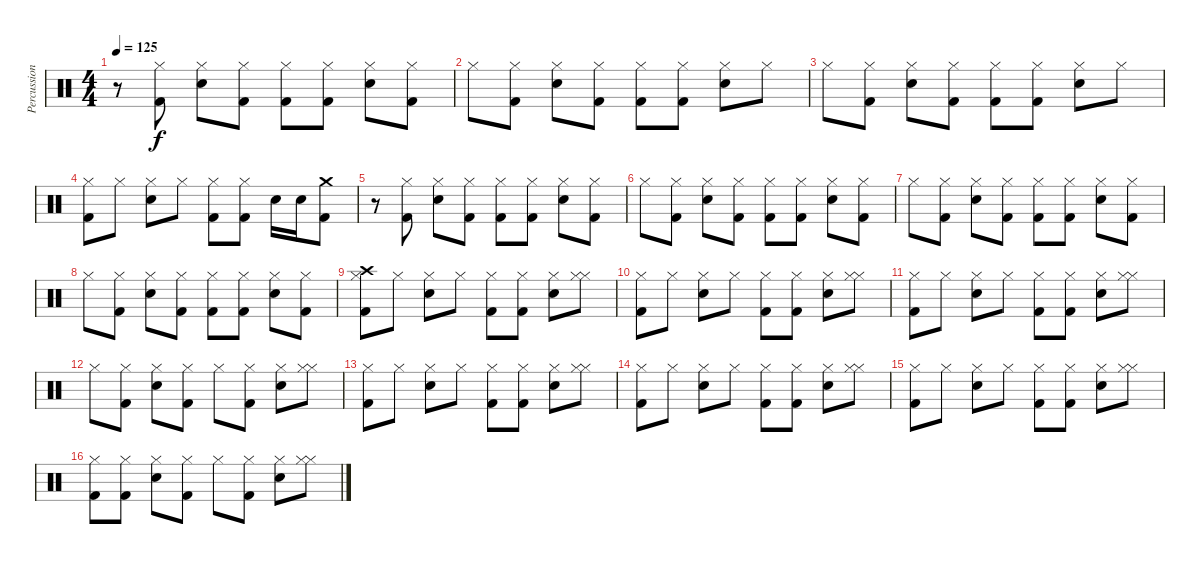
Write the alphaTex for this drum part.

\track ("Percussion" "Percussion") {instrument percussion}
\staff {score}
\articulation defaults
\ts (4 4)
\tempo 125
\clef neutral
\ks c
r.8{dy f} ("Hi-Hat (closed)" "Kick (hit) 2").8 ("Hi-Hat (closed)" "Electric Snare (hit)").8 ("Hi-Hat (closed)" "Kick (hit) 2").8 ("Hi-Hat (closed)" "Kick (hit) 2").8 ("Hi-Hat (closed)" "Kick (hit) 2").8 ("Hi-Hat (closed)" "Electric Snare (hit)").8 ("Hi-Hat (closed)" "Kick (hit) 2").8 |
"Hi-Hat (closed)".8 ("Hi-Hat (closed)" "Kick (hit) 2").8 ("Hi-Hat (closed)" "Electric Snare (hit)").8 ("Hi-Hat (closed)" "Kick (hit) 2").8 ("Hi-Hat (closed)" "Kick (hit) 2").8 ("Hi-Hat (closed)" "Kick (hit) 2").8 ("Hi-Hat (closed)" "Electric Snare (hit)").8 "Hi-Hat (closed)".8 |
"Hi-Hat (closed)".8 ("Hi-Hat (closed)" "Kick (hit) 2").8 ("Hi-Hat (closed)" "Electric Snare (hit)").8 ("Hi-Hat (closed)" "Kick (hit) 2").8 ("Hi-Hat (closed)" "Kick (hit) 2").8 ("Hi-Hat (closed)" "Kick (hit) 2").8 ("Hi-Hat (closed)" "Electric Snare (hit)").8 "Hi-Hat (closed)".8 |
("Hi-Hat (closed)" "Kick (hit) 2").8 "Hi-Hat (closed)".8 ("Hi-Hat (closed)" "Electric Snare (hit)").8 "Hi-Hat (closed)".8 ("Hi-Hat (closed)" "Kick (hit) 2").8 ("Hi-Hat (closed)" "Kick (hit) 2").8 "Electric Snare (hit)".16 "Electric Snare (hit)".16 ("Crash medium (hit)" "Kick (hit) 2").8 |
r.8 ("Hi-Hat (closed)" "Kick (hit) 2").8 ("Hi-Hat (closed)" "Electric Snare (hit)").8 ("Hi-Hat (closed)" "Kick (hit) 2").8 ("Hi-Hat (closed)" "Kick (hit) 2").8 ("Hi-Hat (closed)" "Kick (hit) 2").8 ("Hi-Hat (closed)" "Electric Snare (hit)").8 ("Hi-Hat (closed)" "Kick (hit) 2").8 |
"Hi-Hat (closed)".8 ("Hi-Hat (closed)" "Kick (hit) 2").8 ("Hi-Hat (closed)" "Electric Snare (hit)").8 ("Hi-Hat (closed)" "Kick (hit) 2").8 ("Hi-Hat (closed)" "Kick (hit) 2").8 ("Hi-Hat (closed)" "Kick (hit) 2").8 ("Hi-Hat (closed)" "Electric Snare (hit)").8 ("Hi-Hat (closed)" "Kick (hit) 2").8 |
"Hi-Hat (closed)".8 ("Hi-Hat (closed)" "Kick (hit) 2").8 ("Hi-Hat (closed)" "Electric Snare (hit)").8 ("Hi-Hat (closed)" "Kick (hit) 2").8 ("Hi-Hat (closed)" "Kick (hit) 2").8 ("Hi-Hat (closed)" "Kick (hit) 2").8 ("Hi-Hat (closed)" "Electric Snare (hit)").8 ("Hi-Hat (closed)" "Kick (hit) 2").8 |
"Hi-Hat (closed)".8 ("Hi-Hat (closed)" "Kick (hit) 2").8 ("Hi-Hat (closed)" "Electric Snare (hit)").8 ("Hi-Hat (closed)" "Kick (hit) 2").8 ("Hi-Hat (closed)" "Kick (hit) 2").8 ("Hi-Hat (closed)" "Kick (hit) 2").8 ("Hi-Hat (closed)" "Electric Snare (hit)").8 ("Hi-Hat (closed)" "Kick (hit) 2").8 |
("Crash high (hit)" "Hi-Hat (closed)" "Kick (hit) 2").8 "Hi-Hat (closed)".8 ("Hi-Hat (closed)" "Electric Snare (hit)").8 "Hi-Hat (closed)".8 ("Hi-Hat (closed)" "Kick (hit) 2").8 ("Hi-Hat (closed)" "Kick (hit) 2").8 ("Hi-Hat (closed)" "Electric Snare (hit)").8 ("Hi-Hat (closed)" "Hi-Hat (closed)").8 |
("Hi-Hat (closed)" "Kick (hit) 2").8 "Hi-Hat (closed)".8 ("Hi-Hat (closed)" "Electric Snare (hit)").8 "Hi-Hat (closed)".8 ("Hi-Hat (closed)" "Kick (hit) 2").8 ("Hi-Hat (closed)" "Kick (hit) 2").8 ("Hi-Hat (closed)" "Electric Snare (hit)").8 ("Hi-Hat (closed)" "Hi-Hat (closed)").8 |
("Hi-Hat (closed)" "Kick (hit) 2").8 "Hi-Hat (closed)".8 ("Hi-Hat (closed)" "Electric Snare (hit)").8 "Hi-Hat (closed)".8 ("Hi-Hat (closed)" "Kick (hit) 2").8 ("Hi-Hat (closed)" "Kick (hit) 2").8 ("Hi-Hat (closed)" "Electric Snare (hit)").8 ("Hi-Hat (closed)" "Hi-Hat (closed)").8 |
"Hi-Hat (closed)".8 ("Hi-Hat (closed)" "Kick (hit) 2").8 ("Hi-Hat (closed)" "Electric Snare (hit)").8 ("Hi-Hat (closed)" "Kick (hit) 2").8 "Hi-Hat (closed)".8 ("Hi-Hat (closed)" "Kick (hit) 2").8 ("Hi-Hat (closed)" "Electric Snare (hit)").8 ("Hi-Hat (closed)" "Hi-Hat (closed)").8 |
("Hi-Hat (closed)" "Kick (hit) 2").8 "Hi-Hat (closed)".8 ("Hi-Hat (closed)" "Electric Snare (hit)").8 "Hi-Hat (closed)".8 ("Hi-Hat (closed)" "Kick (hit) 2").8 ("Hi-Hat (closed)" "Kick (hit) 2").8 ("Hi-Hat (closed)" "Electric Snare (hit)").8 ("Hi-Hat (closed)" "Hi-Hat (closed)").8 |
("Hi-Hat (closed)" "Kick (hit) 2").8 "Hi-Hat (closed)".8 ("Hi-Hat (closed)" "Electric Snare (hit)").8 "Hi-Hat (closed)".8 ("Hi-Hat (closed)" "Kick (hit) 2").8 ("Hi-Hat (closed)" "Kick (hit) 2").8 ("Hi-Hat (closed)" "Electric Snare (hit)").8 ("Hi-Hat (closed)" "Hi-Hat (closed)").8 |
("Hi-Hat (closed)" "Kick (hit) 2").8 "Hi-Hat (closed)".8 ("Hi-Hat (closed)" "Electric Snare (hit)").8 "Hi-Hat (closed)".8 ("Hi-Hat (closed)" "Kick (hit) 2").8 ("Hi-Hat (closed)" "Kick (hit) 2").8 ("Hi-Hat (closed)" "Electric Snare (hit)").8 ("Hi-Hat (closed)" "Hi-Hat (closed)").8 |
("Hi-Hat (closed)" "Kick (hit) 2").8 ("Hi-Hat (closed)" "Kick (hit) 2").8 ("Hi-Hat (closed)" "Electric Snare (hit)").8 ("Hi-Hat (closed)" "Kick (hit) 2").8 "Hi-Hat (closed)".8 ("Hi-Hat (closed)" "Kick (hit) 2").8 ("Hi-Hat (closed)" "Electric Snare (hit)").8 ("Hi-Hat (closed)" "Hi-Hat (closed)").8
